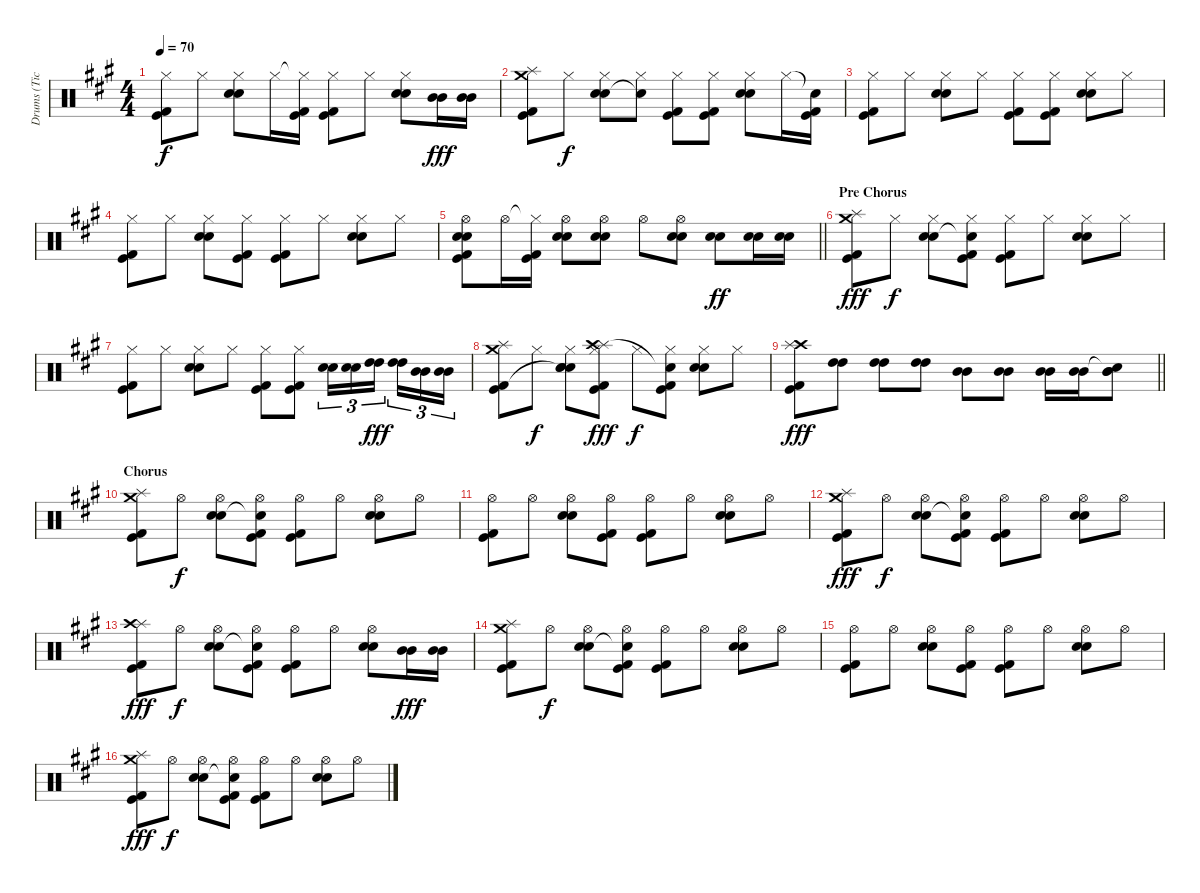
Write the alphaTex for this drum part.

\track ("Drums (Tico Torres)" "Drums (Tic") {instrument percussion}
\staff {score}
\articulation defaults
\ts (4 4)
\tempo 70
\clef neutral
\ks a
("Hi-Hat (closed)" "Kick (hit)" "Kick (hit) 2").8{dy f} "Hi-Hat (closed)".8 ("Hi-Hat (closed)" "Electric Snare (hit)" "Snare (hit) 2").8 "Hi-Hat (closed)".16 ("Hi-Hat (closed)"{t} "Kick (hit)" "Kick (hit) 2").16 ("Hi-Hat (closed)" "Kick (hit)" "Kick (hit) 2").8 "Hi-Hat (closed)".8 ("Hi-Hat (closed)" "Electric Snare (hit)" "Snare (hit) 2").8 ("Mid Tom (hit)" "Mid Tom (hit)").16{dy fff} ("Mid Tom (hit)" "Mid Tom (hit)").16 |
("Splash (hit)" "Crash medium (hit)" "Kick (hit)" "Kick (hit) 2").8 "Hi-Hat (closed)".8{dy f} ("Hi-Hat (closed)" "Electric Snare (hit)" "Snare (hit) 2").8 ("Hi-Hat (closed)" "Snare (hit)"{t}).8 ("Hi-Hat (closed)" "Kick (hit)" "Kick (hit) 2").8 ("Hi-Hat (closed)" "Kick (hit)" "Kick (hit) 2").8 ("Hi-Hat (closed)" "Electric Snare (hit)" "Snare (hit) 2").8 "Hi-Hat (closed)".16 ("Snare (hit)"{t} "Kick (hit)" "Kick (hit) 2").16 |
("Hi-Hat (closed)" "Kick (hit)" "Kick (hit) 2").8 "Hi-Hat (closed)".8 ("Hi-Hat (closed)" "Electric Snare (hit)" "Snare (hit) 2").8 "Hi-Hat (closed)".8 ("Hi-Hat (closed)" "Kick (hit)" "Kick (hit) 2").8 ("Hi-Hat (closed)" "Kick (hit)" "Kick (hit) 2").8 ("Hi-Hat (closed)" "Electric Snare (hit)" "Snare (hit) 2").8 "Hi-Hat (closed)".8 |
("Hi-Hat (closed)" "Kick (hit)" "Kick (hit) 2").8 "Hi-Hat (closed)".8 ("Hi-Hat (closed)" "Electric Snare (hit)" "Snare (hit) 2").8 ("Hi-Hat (closed)" "Kick (hit)" "Kick (hit) 2").8 ("Hi-Hat (closed)" "Kick (hit)" "Kick (hit) 2").8 "Hi-Hat (closed)".8 ("Hi-Hat (closed)" "Electric Snare (hit)" "Snare (hit) 2").8 "Hi-Hat (closed)".8 |
\barLineRight lightlight
("Hi-Hat (open)" "Electric Snare (hit)" "Snare (hit) 2" "Kick (hit)" "Kick (hit) 2").8 "Hi-Hat (open)".16 ("Hi-Hat (closed)"{t} "Kick (hit)" "Kick (hit) 2").16 ("Hi-Hat (open)" "Electric Snare (hit)" "Snare (hit) 2").8 ("Hi-Hat (open)" "Electric Snare (hit)" "Snare (hit) 2").8 "Hi-Hat (open)".8 ("Hi-Hat (open)" "Electric Snare (hit)" "Snare (hit) 2").8 ("Electric Snare (hit)" "Snare (hit) 2").8{dy ff} ("Electric Snare (hit)" "Snare (hit) 2").16 ("Electric Snare (hit)" "Snare (hit) 2").16 |
\section ("" "Pre Chorus")
("Splash (hit)" "Crash medium (hit)" "Kick (hit)" "Kick (hit) 2").8{dy fff} "Hi-Hat (closed)".8{dy f} ("Hi-Hat (closed)" "Electric Snare (hit)" "Snare (hit) 2").8 ("Hi-Hat (closed)" "Snare (hit)"{t} "Kick (hit)" "Kick (hit) 2").8 ("Hi-Hat (closed)" "Kick (hit)" "Kick (hit) 2").8 "Hi-Hat (closed)".8 ("Hi-Hat (closed)" "Electric Snare (hit)" "Snare (hit) 2").8 "Hi-Hat (closed)".8 |
("Hi-Hat (closed)" "Kick (hit)" "Kick (hit) 2").8 "Hi-Hat (closed)".8 ("Hi-Hat (closed)" "Electric Snare (hit)" "Snare (hit) 2").8 "Hi-Hat (closed)".8 ("Hi-Hat (closed)" "Kick (hit)" "Kick (hit) 2").8 ("Hi-Hat (closed)" "Kick (hit)" "Kick (hit) 2").8 ("Electric Snare (hit)" "Snare (hit) 2").16{tu (3 2)} ("Electric Snare (hit)" "Snare (hit) 2").16{tu (3 2)} ("High Tom (hit)" "High Tom (hit)").16{tu (3 2) dy fff beam splitsecondary} ("High Tom (hit)" "High Tom (hit)").16{tu (3 2)} ("Mid Tom (hit)" "Mid Tom (hit)").16{tu (3 2)} ("Mid Tom (hit)" "Mid Tom (hit)").16{tu (3 2)} |
("Splash (hit)" "Crash medium (hit)" "Kick (hit)" "Kick (hit) 2").8 "Hi-Hat (closed)".8{dy f} ("Hi-Hat (closed)" "Electric Snare (hit)" "Snare (hit) 2" "Snare (hit)"{t}).8 ("Hi-Hat (closed)" "Splash (hit)" "Crash high (hit)" "Kick (hit)" "Kick (hit) 2").8{dy fff} "Hi-Hat (closed)".8{dy f} ("Hi-Hat (closed)" "Snare (hit)"{t} "Kick (hit)" "Kick (hit) 2").8 ("Hi-Hat (closed)" "Electric Snare (hit)" "Snare (hit) 2").8 "Hi-Hat (closed)".8 |
\barLineRight lightlight
("Crash high (hit)" "Splash (hit)" "Kick (hit)" "Kick (hit) 2").8{dy fff} ("High Tom (hit)" "High Tom (hit)").8 ("High Tom (hit)" "High Tom (hit)").8 ("High Tom (hit)" "High Tom (hit)").8 ("Mid Tom (hit)" "Mid Tom (hit)").8 ("Mid Tom (hit)" "Mid Tom (hit)").8 ("Mid Tom (hit)" "Mid Tom (hit)").16 ("Mid Tom (hit)" "Mid Tom (hit)").16 ("Snare (hit)"{t} "Mid Tom (hit)" "Mid Tom (hit)").8 |
\section ("" "Chorus")
("Splash (hit)" "Crash medium (hit)" "Kick (hit)" "Kick (hit) 2").8 "Hi-Hat (open)".8{dy f} ("Hi-Hat (open)" "Electric Snare (hit)" "Snare (hit) 2").8 ("Hi-Hat (open)" "Snare (hit)"{t} "Kick (hit)" "Kick (hit) 2").8 ("Hi-Hat (open)" "Kick (hit)" "Kick (hit) 2").8 "Hi-Hat (open)".8 ("Hi-Hat (open)" "Electric Snare (hit)" "Snare (hit) 2").8 "Hi-Hat (open)".8 |
("Hi-Hat (open)" "Kick (hit)" "Kick (hit) 2").8 "Hi-Hat (open)".8 ("Hi-Hat (open)" "Electric Snare (hit)" "Snare (hit) 2").8 ("Hi-Hat (open)" "Kick (hit)" "Kick (hit) 2").8 ("Hi-Hat (open)" "Kick (hit)" "Kick (hit) 2").8 "Hi-Hat (open)".8 ("Hi-Hat (open)" "Electric Snare (hit)" "Snare (hit) 2").8 "Hi-Hat (open)".8 |
("Splash (hit)" "Crash medium (hit)" "Kick (hit)" "Kick (hit) 2").8{dy fff} "Hi-Hat (open)".8{dy f} ("Hi-Hat (open)" "Electric Snare (hit)" "Snare (hit) 2").8 ("Hi-Hat (open)" "Snare (hit)"{t} "Kick (hit)" "Kick (hit) 2").8 ("Hi-Hat (open)" "Kick (hit)" "Kick (hit) 2").8 "Hi-Hat (open)".8 ("Hi-Hat (open)" "Electric Snare (hit)" "Snare (hit) 2").8 "Hi-Hat (open)".8 |
("Splash (hit)" "Crash high (hit)" "Kick (hit)" "Kick (hit) 2").8{dy fff} "Hi-Hat (open)".8{dy f} ("Hi-Hat (open)" "Electric Snare (hit)" "Snare (hit) 2").8 ("Hi-Hat (open)" "Snare (hit)"{t} "Kick (hit)" "Kick (hit) 2").8 ("Hi-Hat (open)" "Kick (hit)" "Kick (hit) 2").8 "Hi-Hat (open)".8 ("Hi-Hat (open)" "Electric Snare (hit)" "Snare (hit) 2").8 ("Mid Tom (hit)" "Mid Tom (hit)").16{dy fff} ("Mid Tom (hit)" "Mid Tom (hit)").16 |
("Splash (hit)" "Crash medium (hit)" "Kick (hit)" "Kick (hit) 2").8 "Hi-Hat (open)".8{dy f} ("Hi-Hat (open)" "Electric Snare (hit)" "Snare (hit) 2").8 ("Hi-Hat (open)" "Snare (hit)"{t} "Kick (hit)" "Kick (hit) 2").8 ("Hi-Hat (open)" "Kick (hit)" "Kick (hit) 2").8 "Hi-Hat (open)".8 ("Hi-Hat (open)" "Electric Snare (hit)" "Snare (hit) 2").8 "Hi-Hat (open)".8 |
("Hi-Hat (open)" "Kick (hit)" "Kick (hit) 2").8 "Hi-Hat (open)".8 ("Hi-Hat (open)" "Electric Snare (hit)" "Snare (hit) 2").8 ("Hi-Hat (open)" "Kick (hit)" "Kick (hit) 2").8 ("Hi-Hat (open)" "Kick (hit)" "Kick (hit) 2").8 "Hi-Hat (open)".8 ("Hi-Hat (open)" "Electric Snare (hit)" "Snare (hit) 2").8 "Hi-Hat (open)".8 |
("Splash (hit)" "Crash medium (hit)" "Kick (hit)" "Kick (hit) 2").8{dy fff} "Hi-Hat (open)".8{dy f} ("Hi-Hat (open)" "Electric Snare (hit)" "Snare (hit) 2").8 ("Hi-Hat (open)" "Snare (hit)"{t} "Kick (hit)" "Kick (hit) 2").8 ("Hi-Hat (open)" "Kick (hit)" "Kick (hit) 2").8 "Hi-Hat (open)".8 ("Hi-Hat (open)" "Electric Snare (hit)" "Snare (hit) 2").8 "Hi-Hat (open)".8
